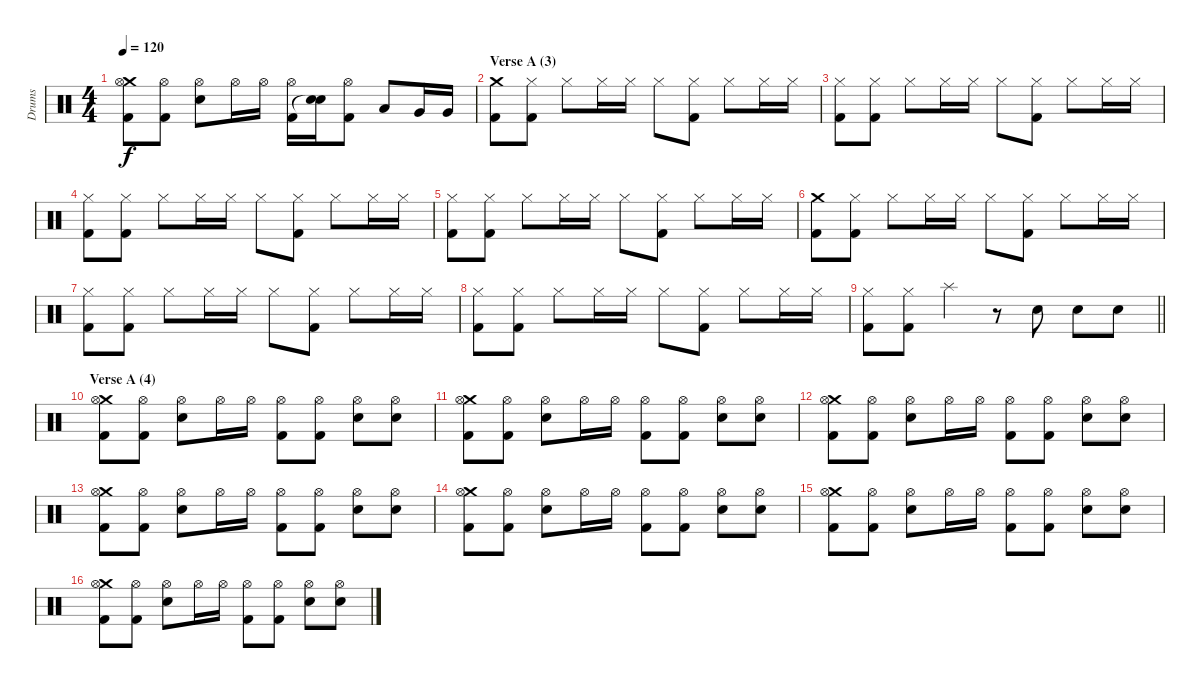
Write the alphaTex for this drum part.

\track ("Drums" "Drums") {instrument percussion}
\staff {score}
\articulation defaults
\ts (4 4)
\tempo 120
\clef neutral
\ks c
("Crash medium (hit)" "Hi-Hat (open)" "Kick (hit) 2").8{dy f} ("Hi-Hat (open)" "Kick (hit) 2").8 ("Hi-Hat (open)" "Electric Snare (hit)").8 "Hi-Hat (open)".16 "Hi-Hat (open)".16 ("Hi-Hat (open)" "Kick (hit) 2").16 ("Electric Snare (hit)" "Snare (hit)"{t}).16 ("Hi-Hat (open)" "Kick (hit) 2").8 "Low Tom (hit)".8 "Very Low Tom (hit)".16 "Very Low Tom (hit)".16 |
\section ("" "Verse A (3)")
("Crash medium (hit)" "Kick (hit) 2").8 ("Hi-Hat (closed)" "Kick (hit) 2").8 "Hi-Hat (closed)".8 "Hi-Hat (closed)".16 "Hi-Hat (closed)".16 "Hi-Hat (closed)".8 ("Hi-Hat (closed)" "Kick (hit) 2").8 "Hi-Hat (closed)".8 "Hi-Hat (closed)".16 "Hi-Hat (closed)".16 |
("Hi-Hat (closed)" "Kick (hit) 2").8 ("Hi-Hat (closed)" "Kick (hit) 2").8 "Hi-Hat (closed)".8 "Hi-Hat (closed)".16 "Hi-Hat (closed)".16 "Hi-Hat (closed)".8 ("Hi-Hat (closed)" "Kick (hit) 2").8 "Hi-Hat (closed)".8 "Hi-Hat (closed)".16 "Hi-Hat (closed)".16 |
("Hi-Hat (closed)" "Kick (hit) 2").8 ("Hi-Hat (closed)" "Kick (hit) 2").8 "Hi-Hat (closed)".8 "Hi-Hat (closed)".16 "Hi-Hat (closed)".16 "Hi-Hat (closed)".8 ("Hi-Hat (closed)" "Kick (hit) 2").8 "Hi-Hat (closed)".8 "Hi-Hat (closed)".16 "Hi-Hat (closed)".16 |
("Hi-Hat (closed)" "Kick (hit) 2").8 ("Hi-Hat (closed)" "Kick (hit) 2").8 "Hi-Hat (closed)".8 "Hi-Hat (closed)".16 "Hi-Hat (closed)".16 "Hi-Hat (closed)".8 ("Hi-Hat (closed)" "Kick (hit) 2").8 "Hi-Hat (closed)".8 "Hi-Hat (closed)".16 "Hi-Hat (closed)".16 |
("Crash medium (hit)" "Kick (hit) 2").8 ("Hi-Hat (closed)" "Kick (hit) 2").8 "Hi-Hat (closed)".8 "Hi-Hat (closed)".16 "Hi-Hat (closed)".16 "Hi-Hat (closed)".8 ("Hi-Hat (closed)" "Kick (hit) 2").8 "Hi-Hat (closed)".8 "Hi-Hat (closed)".16 "Hi-Hat (closed)".16 |
("Hi-Hat (closed)" "Kick (hit) 2").8 ("Hi-Hat (closed)" "Kick (hit) 2").8 "Hi-Hat (closed)".8 "Hi-Hat (closed)".16 "Hi-Hat (closed)".16 "Hi-Hat (closed)".8 ("Hi-Hat (closed)" "Kick (hit) 2").8 "Hi-Hat (closed)".8 "Hi-Hat (closed)".16 "Hi-Hat (closed)".16 |
("Hi-Hat (closed)" "Kick (hit) 2").8 ("Hi-Hat (closed)" "Kick (hit) 2").8 "Hi-Hat (closed)".8 "Hi-Hat (closed)".16 "Hi-Hat (closed)".16 "Hi-Hat (closed)".8 ("Hi-Hat (closed)" "Kick (hit) 2").8 "Hi-Hat (closed)".8 "Hi-Hat (closed)".16 "Hi-Hat (closed)".16 |
\barLineRight lightlight
("Hi-Hat (closed)" "Kick (hit) 2").8 ("Hi-Hat (closed)" "Kick (hit) 2").8 "Splash (hit)".4 r.8 "Electric Snare (hit)".8 "Electric Snare (hit)".8 "Electric Snare (hit)".8 |
\section ("" "Verse A (4)")
("Crash medium (hit)" "Hi-Hat (open)" "Kick (hit) 2").8 ("Hi-Hat (open)" "Kick (hit) 2").8 ("Hi-Hat (open)" "Electric Snare (hit)").8 "Hi-Hat (open)".16 "Hi-Hat (open)".16 ("Hi-Hat (open)" "Kick (hit) 2").8 ("Hi-Hat (open)" "Kick (hit) 2").8 ("Hi-Hat (open)" "Electric Snare (hit)").8 ("Hi-Hat (open)" "Electric Snare (hit)").8 |
("Crash medium (hit)" "Hi-Hat (open)" "Kick (hit) 2").8 ("Hi-Hat (open)" "Kick (hit) 2").8 ("Hi-Hat (open)" "Electric Snare (hit)").8 "Hi-Hat (open)".16 "Hi-Hat (open)".16 ("Hi-Hat (open)" "Kick (hit) 2").8 ("Hi-Hat (open)" "Kick (hit) 2").8 ("Hi-Hat (open)" "Electric Snare (hit)").8 ("Hi-Hat (open)" "Electric Snare (hit)").8 |
("Crash medium (hit)" "Hi-Hat (open)" "Kick (hit) 2").8 ("Hi-Hat (open)" "Kick (hit) 2").8 ("Hi-Hat (open)" "Electric Snare (hit)").8 "Hi-Hat (open)".16 "Hi-Hat (open)".16 ("Hi-Hat (open)" "Kick (hit) 2").8 ("Hi-Hat (open)" "Kick (hit) 2").8 ("Hi-Hat (open)" "Electric Snare (hit)").8 ("Hi-Hat (open)" "Electric Snare (hit)").8 |
("Crash medium (hit)" "Hi-Hat (open)" "Kick (hit) 2").8 ("Hi-Hat (open)" "Kick (hit) 2").8 ("Hi-Hat (open)" "Electric Snare (hit)").8 "Hi-Hat (open)".16 "Hi-Hat (open)".16 ("Hi-Hat (open)" "Kick (hit) 2").8 ("Hi-Hat (open)" "Kick (hit) 2").8 ("Hi-Hat (open)" "Electric Snare (hit)").8 ("Hi-Hat (open)" "Electric Snare (hit)").8 |
("Crash medium (hit)" "Hi-Hat (open)" "Kick (hit) 2").8 ("Hi-Hat (open)" "Kick (hit) 2").8 ("Hi-Hat (open)" "Electric Snare (hit)").8 "Hi-Hat (open)".16 "Hi-Hat (open)".16 ("Hi-Hat (open)" "Kick (hit) 2").8 ("Hi-Hat (open)" "Kick (hit) 2").8 ("Hi-Hat (open)" "Electric Snare (hit)").8 ("Hi-Hat (open)" "Electric Snare (hit)").8 |
("Crash medium (hit)" "Hi-Hat (open)" "Kick (hit) 2").8 ("Hi-Hat (open)" "Kick (hit) 2").8 ("Hi-Hat (open)" "Electric Snare (hit)").8 "Hi-Hat (open)".16 "Hi-Hat (open)".16 ("Hi-Hat (open)" "Kick (hit) 2").8 ("Hi-Hat (open)" "Kick (hit) 2").8 ("Hi-Hat (open)" "Electric Snare (hit)").8 ("Hi-Hat (open)" "Electric Snare (hit)").8 |
("Crash medium (hit)" "Hi-Hat (open)" "Kick (hit) 2").8 ("Hi-Hat (open)" "Kick (hit) 2").8 ("Hi-Hat (open)" "Electric Snare (hit)").8 "Hi-Hat (open)".16 "Hi-Hat (open)".16 ("Hi-Hat (open)" "Kick (hit) 2").8 ("Hi-Hat (open)" "Kick (hit) 2").8 ("Hi-Hat (open)" "Electric Snare (hit)").8 ("Hi-Hat (open)" "Electric Snare (hit)").8
